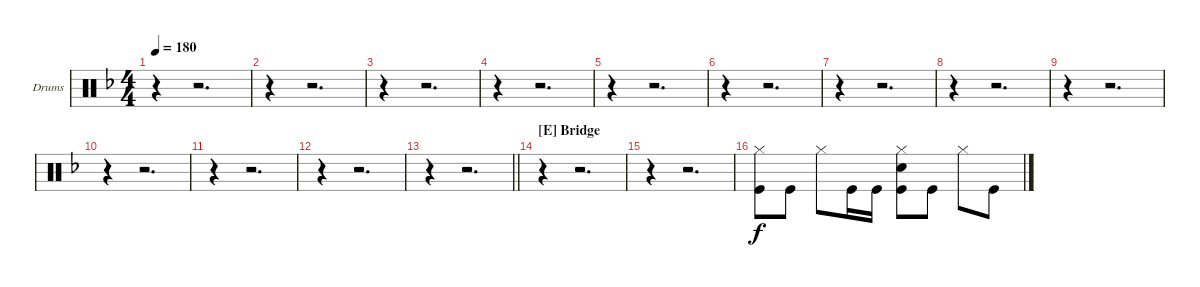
\bracketExtendMode groupsimilarinstruments
\firstSystemTrackNameOrientation horizontal
\otherSystemsTrackNameOrientation horizontal
\track ("Drumkit" "Drums") {instrument percussion}
\staff {score}
\articulation defaults
\ts (4 4)
\tempo 180
\clef neutral
\ks dminor
r.4{dy f} r.2{d} |
r.4 r.2{d} |
r.4 r.2{d} |
r.4 r.2{d} |
r.4 r.2{d} |
r.4 r.2{d} |
r.4 r.2{d} |
r.4 r.2{d} |
r.4 r.2{d} |
r.4 r.2{d} |
r.4 r.2{d} |
r.4 r.2{d} |
\barLineRight lightlight
r.4 r.2{d} |
\section ("E" "Bridge")
r.4 r.2{d} |
r.4 r.2{d} |
("Hi-Hat (closed)" "Kick (hit)").8 "Kick (hit)".8 "Hi-Hat (closed)".8 "Kick (hit)".16 "Kick (hit)".16 ("Hi-Hat (closed)" "Snare (hit) 2" "Kick (hit)").8 "Kick (hit)".8 "Hi-Hat (closed)".8 "Kick (hit)".8
